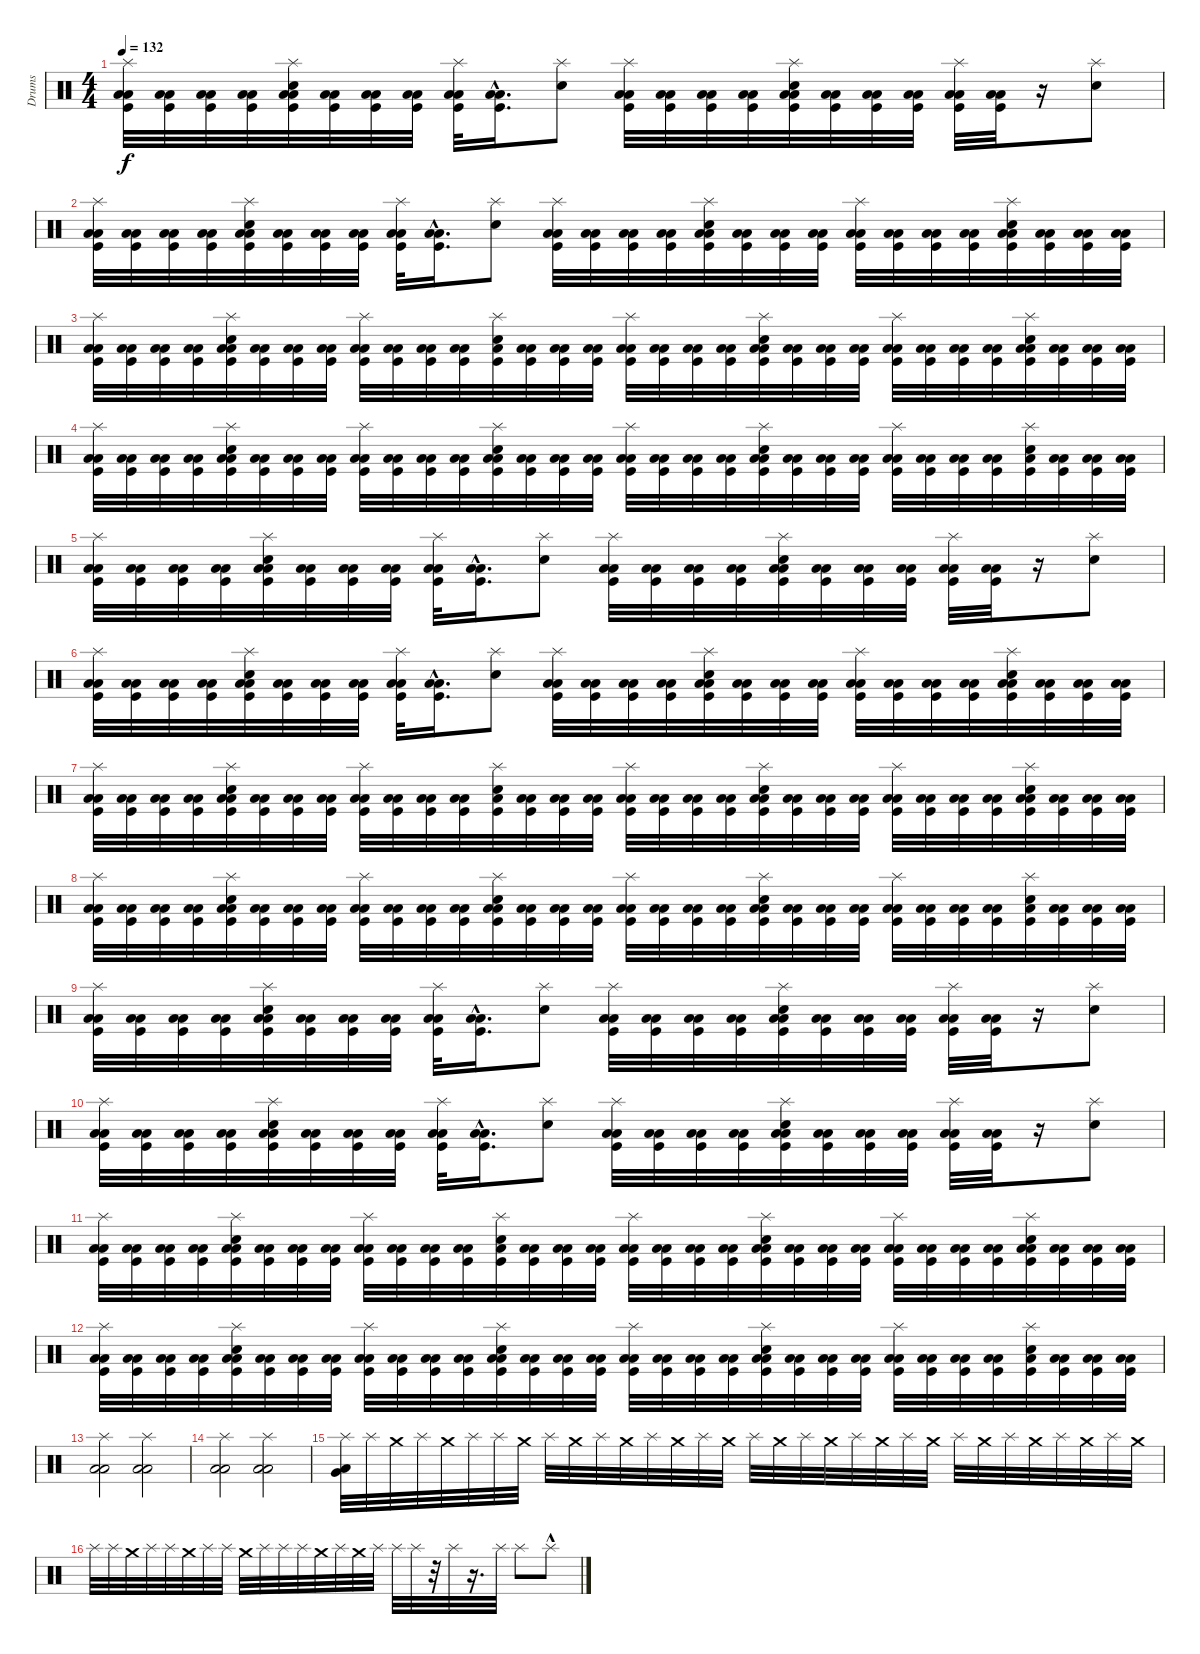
\track ("Drums" "Drums") {instrument percussion}
\staff {score}
\articulation defaults
\ts (4 4)
\tempo 132
\clef neutral
\ks c
("Splash (hit)" "Kick (hit)" "Low Floor Tom (hit)" "Low Tom (hit)").32{dy f} ("Kick (hit)" "Low Floor Tom (hit)" "Low Tom (hit)").32 ("Kick (hit)" "Low Floor Tom (hit)" "Low Tom (hit)").32 ("Kick (hit)" "Low Floor Tom (hit)" "Low Tom (hit)").32 ("Snare (hit) 2" "Splash (hit)" "Kick (hit)" "Low Floor Tom (hit)" "Low Tom (hit)").32 ("Kick (hit)" "Low Floor Tom (hit)" "Low Tom (hit)").32 ("Kick (hit)" "Low Floor Tom (hit)" "Low Tom (hit)").32 ("Kick (hit)" "Low Floor Tom (hit)" "Low Tom (hit)").32 ("Splash (hit)" "Low Floor Tom (hit)" "Kick (hit)" "Low Tom (hit)").32 ("Kick (hit)" "Low Floor Tom (hit)"{hac} "Low Tom (hit)").16{d} ("Electric Snare (hit)" "Splash (hit)").8 ("Splash (hit)" "Low Tom (hit)" "Low Floor Tom (hit)" "Kick (hit)").32 ("Kick (hit)" "Low Tom (hit)" "Low Floor Tom (hit)").32 ("Kick (hit)" "Low Tom (hit)" "Low Floor Tom (hit)").32 ("Kick (hit)" "Low Tom (hit)" "Low Floor Tom (hit)").32 ("Snare (hit) 2" "Splash (hit)" "Kick (hit)" "Low Tom (hit)" "Low Floor Tom (hit)").32 ("Kick (hit)" "Low Tom (hit)" "Low Floor Tom (hit)").32 ("Kick (hit)" "Low Tom (hit)" "Low Floor Tom (hit)").32 ("Kick (hit)" "Low Tom (hit)" "Low Floor Tom (hit)").32 ("Splash (hit)" "Kick (hit)" "Low Tom (hit)" "Low Floor Tom (hit)").32 ("Kick (hit)" "Low Tom (hit)" "Low Floor Tom (hit)").32 r.16 ("Electric Snare (hit)" "Splash (hit)").8 |
("Splash (hit)" "Kick (hit)" "Low Floor Tom (hit)" "Low Tom (hit)").32 ("Kick (hit)" "Low Floor Tom (hit)" "Low Tom (hit)").32 ("Kick (hit)" "Low Floor Tom (hit)" "Low Tom (hit)").32 ("Kick (hit)" "Low Floor Tom (hit)" "Low Tom (hit)").32 ("Snare (hit) 2" "Splash (hit)" "Kick (hit)" "Low Floor Tom (hit)" "Low Tom (hit)").32 ("Kick (hit)" "Low Floor Tom (hit)" "Low Tom (hit)").32 ("Kick (hit)" "Low Floor Tom (hit)" "Low Tom (hit)").32 ("Kick (hit)" "Low Floor Tom (hit)" "Low Tom (hit)").32 ("Splash (hit)" "Low Floor Tom (hit)" "Kick (hit)" "Low Tom (hit)").32 ("Kick (hit)" "Low Floor Tom (hit)"{hac} "Low Tom (hit)").16{d} ("Electric Snare (hit)" "Splash (hit)").8 ("Splash (hit)" "Low Tom (hit)" "Low Floor Tom (hit)" "Kick (hit)").32 ("Kick (hit)" "Low Tom (hit)" "Low Floor Tom (hit)").32 ("Kick (hit)" "Low Tom (hit)" "Low Floor Tom (hit)").32 ("Kick (hit)" "Low Tom (hit)" "Low Floor Tom (hit)").32 ("Snare (hit) 2" "Splash (hit)" "Kick (hit)" "Low Tom (hit)" "Low Floor Tom (hit)").32 ("Kick (hit)" "Low Tom (hit)" "Low Floor Tom (hit)").32 ("Kick (hit)" "Low Tom (hit)" "Low Floor Tom (hit)").32 ("Kick (hit)" "Low Tom (hit)" "Low Floor Tom (hit)").32 ("Splash (hit)" "Kick (hit)" "Low Tom (hit)" "Low Floor Tom (hit)").32 ("Kick (hit)" "Low Tom (hit)" "Low Floor Tom (hit)").32 ("Kick (hit)" "Low Floor Tom (hit)" "Low Tom (hit)").32 ("Kick (hit)" "Low Floor Tom (hit)" "Low Tom (hit)").32 ("Low Floor Tom (hit)" "Kick (hit)" "Low Tom (hit)" "Electric Snare (hit)" "Splash (hit)").32 ("Kick (hit)" "Low Floor Tom (hit)" "Low Tom (hit)").32 ("Kick (hit)" "Low Floor Tom (hit)" "Low Tom (hit)").32 ("Kick (hit)" "Low Floor Tom (hit)" "Low Tom (hit)").32 |
("Splash (hit)" "Kick (hit)" "Low Floor Tom (hit)" "Low Tom (hit)").32 ("Kick (hit)" "Low Floor Tom (hit)" "Low Tom (hit)").32 ("Kick (hit)" "Low Floor Tom (hit)" "Low Tom (hit)").32 ("Kick (hit)" "Low Floor Tom (hit)" "Low Tom (hit)").32 ("Snare (hit) 2" "Splash (hit)" "Kick (hit)" "Low Floor Tom (hit)" "Low Tom (hit)").32 ("Kick (hit)" "Low Floor Tom (hit)" "Low Tom (hit)").32 ("Kick (hit)" "Low Floor Tom (hit)" "Low Tom (hit)").32 ("Kick (hit)" "Low Floor Tom (hit)" "Low Tom (hit)").32 ("Splash (hit)" "Low Floor Tom (hit)" "Kick (hit)" "Low Tom (hit)").32 ("Kick (hit)" "Low Floor Tom (hit)" "Low Tom (hit)").32 ("Kick (hit)" "Low Floor Tom (hit)" "Low Tom (hit)").32 ("Low Floor Tom (hit)" "Low Tom (hit)" "Kick (hit)").32 ("Low Tom (hit)" "Kick (hit)" "Electric Snare (hit)" "Splash (hit)").32 ("Low Floor Tom (hit)" "Low Tom (hit)" "Kick (hit)").32 ("Low Floor Tom (hit)" "Low Tom (hit)" "Kick (hit)").32 ("Low Tom (hit)" "Low Floor Tom (hit)" "Kick (hit)").32 ("Splash (hit)" "Low Tom (hit)" "Low Floor Tom (hit)" "Kick (hit)").32 ("Kick (hit)" "Low Tom (hit)" "Low Floor Tom (hit)").32 ("Kick (hit)" "Low Tom (hit)" "Low Floor Tom (hit)").32 ("Kick (hit)" "Low Tom (hit)" "Low Floor Tom (hit)").32 ("Snare (hit) 2" "Splash (hit)" "Kick (hit)" "Low Tom (hit)" "Low Floor Tom (hit)").32 ("Kick (hit)" "Low Tom (hit)" "Low Floor Tom (hit)").32 ("Kick (hit)" "Low Tom (hit)" "Low Floor Tom (hit)").32 ("Kick (hit)" "Low Tom (hit)" "Low Floor Tom (hit)").32 ("Splash (hit)" "Kick (hit)" "Low Tom (hit)" "Low Floor Tom (hit)").32 ("Kick (hit)" "Low Tom (hit)" "Low Floor Tom (hit)").32 ("Kick (hit)" "Low Floor Tom (hit)" "Low Tom (hit)").32 ("Kick (hit)" "Low Floor Tom (hit)" "Low Tom (hit)").32 ("Kick (hit)" "Splash (hit)" "Low Floor Tom (hit)" "Low Tom (hit)" "Electric Snare (hit)").32 ("Kick (hit)" "Low Floor Tom (hit)" "Low Tom (hit)").32 ("Kick (hit)" "Low Floor Tom (hit)" "Low Tom (hit)").32 ("Kick (hit)" "Low Floor Tom (hit)" "Low Tom (hit)").32 |
("Splash (hit)" "Kick (hit)" "Low Floor Tom (hit)" "Low Tom (hit)").32 ("Kick (hit)" "Low Floor Tom (hit)" "Low Tom (hit)").32 ("Kick (hit)" "Low Floor Tom (hit)" "Low Tom (hit)").32 ("Kick (hit)" "Low Floor Tom (hit)" "Low Tom (hit)").32 ("Snare (hit) 2" "Splash (hit)" "Kick (hit)" "Low Floor Tom (hit)" "Low Tom (hit)").32 ("Kick (hit)" "Low Floor Tom (hit)" "Low Tom (hit)").32 ("Kick (hit)" "Low Floor Tom (hit)" "Low Tom (hit)").32 ("Kick (hit)" "Low Floor Tom (hit)" "Low Tom (hit)").32 ("Splash (hit)" "Low Floor Tom (hit)" "Kick (hit)" "Low Tom (hit)").32 ("Kick (hit)" "Low Floor Tom (hit)" "Low Tom (hit)").32 ("Kick (hit)" "Low Floor Tom (hit)" "Low Tom (hit)").32 ("Kick (hit)" "Low Floor Tom (hit)" "Low Tom (hit)").32 ("Low Tom (hit)" "Low Floor Tom (hit)" "Kick (hit)" "Electric Snare (hit)" "Splash (hit)").32 ("Low Tom (hit)" "Low Floor Tom (hit)" "Kick (hit)").32 ("Low Tom (hit)" "Low Floor Tom (hit)" "Kick (hit)").32 ("Low Tom (hit)" "Low Floor Tom (hit)" "Kick (hit)").32 ("Splash (hit)" "Low Tom (hit)" "Low Floor Tom (hit)" "Kick (hit)").32 ("Kick (hit)" "Low Tom (hit)" "Low Floor Tom (hit)").32 ("Kick (hit)" "Low Tom (hit)" "Low Floor Tom (hit)").32 ("Kick (hit)" "Low Tom (hit)" "Low Floor Tom (hit)").32 ("Snare (hit) 2" "Splash (hit)" "Kick (hit)" "Low Tom (hit)" "Low Floor Tom (hit)").32 ("Kick (hit)" "Low Tom (hit)" "Low Floor Tom (hit)").32 ("Kick (hit)" "Low Tom (hit)" "Low Floor Tom (hit)").32 ("Kick (hit)" "Low Tom (hit)" "Low Floor Tom (hit)").32 ("Splash (hit)" "Kick (hit)" "Low Tom (hit)" "Low Floor Tom (hit)").32 ("Kick (hit)" "Low Tom (hit)" "Low Floor Tom (hit)").32 ("Kick (hit)" "Low Floor Tom (hit)" "Low Tom (hit)").32 ("Kick (hit)" "Low Floor Tom (hit)" "Low Tom (hit)").32 ("Kick (hit)" "Low Tom (hit)" "Electric Snare (hit)" "Splash (hit)").32 ("Kick (hit)" "Low Floor Tom (hit)" "Low Tom (hit)").32 ("Kick (hit)" "Low Floor Tom (hit)" "Low Tom (hit)").32 ("Kick (hit)" "Low Floor Tom (hit)" "Low Tom (hit)").32 |
("Splash (hit)" "Kick (hit)" "Low Floor Tom (hit)" "Low Tom (hit)").32 ("Kick (hit)" "Low Floor Tom (hit)" "Low Tom (hit)").32 ("Kick (hit)" "Low Floor Tom (hit)" "Low Tom (hit)").32 ("Kick (hit)" "Low Floor Tom (hit)" "Low Tom (hit)").32 ("Snare (hit) 2" "Splash (hit)" "Kick (hit)" "Low Floor Tom (hit)" "Low Tom (hit)").32 ("Kick (hit)" "Low Floor Tom (hit)" "Low Tom (hit)").32 ("Kick (hit)" "Low Floor Tom (hit)" "Low Tom (hit)").32 ("Kick (hit)" "Low Floor Tom (hit)" "Low Tom (hit)").32 ("Splash (hit)" "Low Floor Tom (hit)" "Kick (hit)" "Low Tom (hit)").32 ("Kick (hit)" "Low Floor Tom (hit)"{hac} "Low Tom (hit)").16{d} ("Electric Snare (hit)" "Splash (hit)").8 ("Splash (hit)" "Low Tom (hit)" "Low Floor Tom (hit)" "Kick (hit)").32 ("Kick (hit)" "Low Tom (hit)" "Low Floor Tom (hit)").32 ("Kick (hit)" "Low Tom (hit)" "Low Floor Tom (hit)").32 ("Kick (hit)" "Low Tom (hit)" "Low Floor Tom (hit)").32 ("Snare (hit) 2" "Splash (hit)" "Kick (hit)" "Low Tom (hit)" "Low Floor Tom (hit)").32 ("Kick (hit)" "Low Tom (hit)" "Low Floor Tom (hit)").32 ("Kick (hit)" "Low Tom (hit)" "Low Floor Tom (hit)").32 ("Kick (hit)" "Low Tom (hit)" "Low Floor Tom (hit)").32 ("Splash (hit)" "Kick (hit)" "Low Tom (hit)" "Low Floor Tom (hit)").32 ("Kick (hit)" "Low Tom (hit)" "Low Floor Tom (hit)").32 r.16 ("Electric Snare (hit)" "Splash (hit)").8 |
("Splash (hit)" "Kick (hit)" "Low Floor Tom (hit)" "Low Tom (hit)").32 ("Kick (hit)" "Low Floor Tom (hit)" "Low Tom (hit)").32 ("Kick (hit)" "Low Floor Tom (hit)" "Low Tom (hit)").32 ("Kick (hit)" "Low Floor Tom (hit)" "Low Tom (hit)").32 ("Snare (hit) 2" "Splash (hit)" "Kick (hit)" "Low Floor Tom (hit)" "Low Tom (hit)").32 ("Kick (hit)" "Low Floor Tom (hit)" "Low Tom (hit)").32 ("Kick (hit)" "Low Floor Tom (hit)" "Low Tom (hit)").32 ("Kick (hit)" "Low Floor Tom (hit)" "Low Tom (hit)").32 ("Splash (hit)" "Low Floor Tom (hit)" "Kick (hit)" "Low Tom (hit)").32 ("Kick (hit)" "Low Floor Tom (hit)"{hac} "Low Tom (hit)").16{d} ("Electric Snare (hit)" "Splash (hit)").8 ("Splash (hit)" "Low Tom (hit)" "Low Floor Tom (hit)" "Kick (hit)").32 ("Kick (hit)" "Low Tom (hit)" "Low Floor Tom (hit)").32 ("Kick (hit)" "Low Tom (hit)" "Low Floor Tom (hit)").32 ("Kick (hit)" "Low Tom (hit)" "Low Floor Tom (hit)").32 ("Snare (hit) 2" "Splash (hit)" "Kick (hit)" "Low Tom (hit)" "Low Floor Tom (hit)").32 ("Kick (hit)" "Low Tom (hit)" "Low Floor Tom (hit)").32 ("Kick (hit)" "Low Tom (hit)" "Low Floor Tom (hit)").32 ("Kick (hit)" "Low Tom (hit)" "Low Floor Tom (hit)").32 ("Splash (hit)" "Kick (hit)" "Low Tom (hit)" "Low Floor Tom (hit)").32 ("Kick (hit)" "Low Tom (hit)" "Low Floor Tom (hit)").32 ("Kick (hit)" "Low Floor Tom (hit)" "Low Tom (hit)").32 ("Kick (hit)" "Low Floor Tom (hit)" "Low Tom (hit)").32 ("Low Floor Tom (hit)" "Kick (hit)" "Low Tom (hit)" "Electric Snare (hit)" "Splash (hit)").32 ("Kick (hit)" "Low Floor Tom (hit)" "Low Tom (hit)").32 ("Kick (hit)" "Low Floor Tom (hit)" "Low Tom (hit)").32 ("Kick (hit)" "Low Floor Tom (hit)" "Low Tom (hit)").32 |
("Splash (hit)" "Kick (hit)" "Low Floor Tom (hit)" "Low Tom (hit)").32 ("Kick (hit)" "Low Floor Tom (hit)" "Low Tom (hit)").32 ("Kick (hit)" "Low Floor Tom (hit)" "Low Tom (hit)").32 ("Kick (hit)" "Low Floor Tom (hit)" "Low Tom (hit)").32 ("Snare (hit) 2" "Splash (hit)" "Kick (hit)" "Low Floor Tom (hit)" "Low Tom (hit)").32 ("Kick (hit)" "Low Floor Tom (hit)" "Low Tom (hit)").32 ("Kick (hit)" "Low Floor Tom (hit)" "Low Tom (hit)").32 ("Kick (hit)" "Low Floor Tom (hit)" "Low Tom (hit)").32 ("Splash (hit)" "Low Floor Tom (hit)" "Kick (hit)" "Low Tom (hit)").32 ("Kick (hit)" "Low Floor Tom (hit)" "Low Tom (hit)").32 ("Kick (hit)" "Low Floor Tom (hit)" "Low Tom (hit)").32 ("Low Floor Tom (hit)" "Low Tom (hit)" "Kick (hit)").32 ("Low Tom (hit)" "Kick (hit)" "Electric Snare (hit)" "Splash (hit)").32 ("Low Floor Tom (hit)" "Low Tom (hit)" "Kick (hit)").32 ("Low Floor Tom (hit)" "Low Tom (hit)" "Kick (hit)").32 ("Low Tom (hit)" "Low Floor Tom (hit)" "Kick (hit)").32 ("Splash (hit)" "Low Tom (hit)" "Low Floor Tom (hit)" "Kick (hit)").32 ("Kick (hit)" "Low Tom (hit)" "Low Floor Tom (hit)").32 ("Kick (hit)" "Low Tom (hit)" "Low Floor Tom (hit)").32 ("Kick (hit)" "Low Tom (hit)" "Low Floor Tom (hit)").32 ("Snare (hit) 2" "Splash (hit)" "Kick (hit)" "Low Tom (hit)" "Low Floor Tom (hit)").32 ("Kick (hit)" "Low Tom (hit)" "Low Floor Tom (hit)").32 ("Kick (hit)" "Low Tom (hit)" "Low Floor Tom (hit)").32 ("Kick (hit)" "Low Tom (hit)" "Low Floor Tom (hit)").32 ("Splash (hit)" "Kick (hit)" "Low Tom (hit)" "Low Floor Tom (hit)").32 ("Kick (hit)" "Low Tom (hit)" "Low Floor Tom (hit)").32 ("Kick (hit)" "Low Floor Tom (hit)" "Low Tom (hit)").32 ("Kick (hit)" "Low Floor Tom (hit)" "Low Tom (hit)").32 ("Kick (hit)" "Splash (hit)" "Low Floor Tom (hit)" "Low Tom (hit)" "Electric Snare (hit)").32 ("Kick (hit)" "Low Floor Tom (hit)" "Low Tom (hit)").32 ("Kick (hit)" "Low Floor Tom (hit)" "Low Tom (hit)").32 ("Kick (hit)" "Low Floor Tom (hit)" "Low Tom (hit)").32 |
("Splash (hit)" "Kick (hit)" "Low Floor Tom (hit)" "Low Tom (hit)").32 ("Kick (hit)" "Low Floor Tom (hit)" "Low Tom (hit)").32 ("Kick (hit)" "Low Floor Tom (hit)" "Low Tom (hit)").32 ("Kick (hit)" "Low Floor Tom (hit)" "Low Tom (hit)").32 ("Snare (hit) 2" "Splash (hit)" "Kick (hit)" "Low Floor Tom (hit)" "Low Tom (hit)").32 ("Kick (hit)" "Low Floor Tom (hit)" "Low Tom (hit)").32 ("Kick (hit)" "Low Floor Tom (hit)" "Low Tom (hit)").32 ("Kick (hit)" "Low Floor Tom (hit)" "Low Tom (hit)").32 ("Splash (hit)" "Low Floor Tom (hit)" "Kick (hit)" "Low Tom (hit)").32 ("Kick (hit)" "Low Floor Tom (hit)" "Low Tom (hit)").32 ("Kick (hit)" "Low Floor Tom (hit)" "Low Tom (hit)").32 ("Kick (hit)" "Low Floor Tom (hit)" "Low Tom (hit)").32 ("Low Tom (hit)" "Low Floor Tom (hit)" "Kick (hit)" "Electric Snare (hit)" "Splash (hit)").32 ("Low Tom (hit)" "Low Floor Tom (hit)" "Kick (hit)").32 ("Low Tom (hit)" "Low Floor Tom (hit)" "Kick (hit)").32 ("Low Tom (hit)" "Low Floor Tom (hit)" "Kick (hit)").32 ("Splash (hit)" "Low Tom (hit)" "Low Floor Tom (hit)" "Kick (hit)").32 ("Kick (hit)" "Low Tom (hit)" "Low Floor Tom (hit)").32 ("Kick (hit)" "Low Tom (hit)" "Low Floor Tom (hit)").32 ("Kick (hit)" "Low Tom (hit)" "Low Floor Tom (hit)").32 ("Snare (hit) 2" "Splash (hit)" "Kick (hit)" "Low Tom (hit)" "Low Floor Tom (hit)").32 ("Kick (hit)" "Low Tom (hit)" "Low Floor Tom (hit)").32 ("Kick (hit)" "Low Tom (hit)" "Low Floor Tom (hit)").32 ("Kick (hit)" "Low Tom (hit)" "Low Floor Tom (hit)").32 ("Splash (hit)" "Kick (hit)" "Low Tom (hit)" "Low Floor Tom (hit)").32 ("Kick (hit)" "Low Tom (hit)" "Low Floor Tom (hit)").32 ("Kick (hit)" "Low Floor Tom (hit)" "Low Tom (hit)").32 ("Kick (hit)" "Low Floor Tom (hit)" "Low Tom (hit)").32 ("Kick (hit)" "Low Tom (hit)" "Electric Snare (hit)" "Splash (hit)").32 ("Kick (hit)" "Low Floor Tom (hit)" "Low Tom (hit)").32 ("Kick (hit)" "Low Floor Tom (hit)" "Low Tom (hit)").32 ("Kick (hit)" "Low Floor Tom (hit)" "Low Tom (hit)").32 |
("Splash (hit)" "Kick (hit)" "Low Floor Tom (hit)" "Low Tom (hit)").32 ("Kick (hit)" "Low Floor Tom (hit)" "Low Tom (hit)").32 ("Kick (hit)" "Low Floor Tom (hit)" "Low Tom (hit)").32 ("Kick (hit)" "Low Floor Tom (hit)" "Low Tom (hit)").32 ("Snare (hit) 2" "Splash (hit)" "Kick (hit)" "Low Floor Tom (hit)" "Low Tom (hit)").32 ("Kick (hit)" "Low Floor Tom (hit)" "Low Tom (hit)").32 ("Kick (hit)" "Low Floor Tom (hit)" "Low Tom (hit)").32 ("Kick (hit)" "Low Floor Tom (hit)" "Low Tom (hit)").32 ("Splash (hit)" "Low Floor Tom (hit)" "Kick (hit)" "Low Tom (hit)").32 ("Kick (hit)" "Low Floor Tom (hit)"{hac} "Low Tom (hit)").16{d} ("Electric Snare (hit)" "Splash (hit)").8 ("Splash (hit)" "Low Tom (hit)" "Low Floor Tom (hit)" "Kick (hit)").32 ("Kick (hit)" "Low Tom (hit)" "Low Floor Tom (hit)").32 ("Kick (hit)" "Low Tom (hit)" "Low Floor Tom (hit)").32 ("Kick (hit)" "Low Tom (hit)" "Low Floor Tom (hit)").32 ("Snare (hit) 2" "Splash (hit)" "Kick (hit)" "Low Tom (hit)" "Low Floor Tom (hit)").32 ("Kick (hit)" "Low Tom (hit)" "Low Floor Tom (hit)").32 ("Kick (hit)" "Low Tom (hit)" "Low Floor Tom (hit)").32 ("Kick (hit)" "Low Tom (hit)" "Low Floor Tom (hit)").32 ("Splash (hit)" "Kick (hit)" "Low Tom (hit)" "Low Floor Tom (hit)").32 ("Kick (hit)" "Low Tom (hit)" "Low Floor Tom (hit)").32 r.16 ("Electric Snare (hit)" "Splash (hit)").8 |
("Splash (hit)" "Kick (hit)" "Low Floor Tom (hit)" "Low Tom (hit)").32 ("Kick (hit)" "Low Floor Tom (hit)" "Low Tom (hit)").32 ("Kick (hit)" "Low Floor Tom (hit)" "Low Tom (hit)").32 ("Kick (hit)" "Low Floor Tom (hit)" "Low Tom (hit)").32 ("Snare (hit) 2" "Splash (hit)" "Kick (hit)" "Low Floor Tom (hit)" "Low Tom (hit)").32 ("Kick (hit)" "Low Floor Tom (hit)" "Low Tom (hit)").32 ("Kick (hit)" "Low Floor Tom (hit)" "Low Tom (hit)").32 ("Kick (hit)" "Low Floor Tom (hit)" "Low Tom (hit)").32 ("Splash (hit)" "Low Floor Tom (hit)" "Kick (hit)" "Low Tom (hit)").32 ("Kick (hit)" "Low Floor Tom (hit)"{hac} "Low Tom (hit)").16{d} ("Electric Snare (hit)" "Splash (hit)").8 ("Splash (hit)" "Low Tom (hit)" "Low Floor Tom (hit)" "Kick (hit)").32 ("Kick (hit)" "Low Tom (hit)" "Low Floor Tom (hit)").32 ("Kick (hit)" "Low Tom (hit)" "Low Floor Tom (hit)").32 ("Kick (hit)" "Low Tom (hit)" "Low Floor Tom (hit)").32 ("Snare (hit) 2" "Splash (hit)" "Kick (hit)" "Low Tom (hit)" "Low Floor Tom (hit)").32 ("Kick (hit)" "Low Tom (hit)" "Low Floor Tom (hit)").32 ("Kick (hit)" "Low Tom (hit)" "Low Floor Tom (hit)").32 ("Kick (hit)" "Low Tom (hit)" "Low Floor Tom (hit)").32 ("Splash (hit)" "Kick (hit)" "Low Tom (hit)" "Low Floor Tom (hit)").32 ("Kick (hit)" "Low Tom (hit)" "Low Floor Tom (hit)").32 r.16 ("Electric Snare (hit)" "Splash (hit)").8 |
("Splash (hit)" "Kick (hit)" "Low Floor Tom (hit)" "Low Tom (hit)").32 ("Kick (hit)" "Low Floor Tom (hit)" "Low Tom (hit)").32 ("Kick (hit)" "Low Floor Tom (hit)" "Low Tom (hit)").32 ("Kick (hit)" "Low Floor Tom (hit)" "Low Tom (hit)").32 ("Snare (hit) 2" "Splash (hit)" "Kick (hit)" "Low Floor Tom (hit)" "Low Tom (hit)").32 ("Kick (hit)" "Low Floor Tom (hit)" "Low Tom (hit)").32 ("Kick (hit)" "Low Floor Tom (hit)" "Low Tom (hit)").32 ("Kick (hit)" "Low Floor Tom (hit)" "Low Tom (hit)").32 ("Splash (hit)" "Low Floor Tom (hit)" "Kick (hit)" "Low Tom (hit)").32 ("Kick (hit)" "Low Floor Tom (hit)" "Low Tom (hit)").32 ("Kick (hit)" "Low Floor Tom (hit)" "Low Tom (hit)").32 ("Low Floor Tom (hit)" "Low Tom (hit)" "Kick (hit)").32 ("Low Tom (hit)" "Kick (hit)" "Electric Snare (hit)" "Splash (hit)").32 ("Low Floor Tom (hit)" "Low Tom (hit)" "Kick (hit)").32 ("Low Floor Tom (hit)" "Low Tom (hit)" "Kick (hit)").32 ("Low Tom (hit)" "Low Floor Tom (hit)" "Kick (hit)").32 ("Splash (hit)" "Low Tom (hit)" "Low Floor Tom (hit)" "Kick (hit)").32 ("Kick (hit)" "Low Tom (hit)" "Low Floor Tom (hit)").32 ("Kick (hit)" "Low Tom (hit)" "Low Floor Tom (hit)").32 ("Kick (hit)" "Low Tom (hit)" "Low Floor Tom (hit)").32 ("Snare (hit) 2" "Splash (hit)" "Kick (hit)" "Low Tom (hit)" "Low Floor Tom (hit)").32 ("Kick (hit)" "Low Tom (hit)" "Low Floor Tom (hit)").32 ("Kick (hit)" "Low Tom (hit)" "Low Floor Tom (hit)").32 ("Kick (hit)" "Low Tom (hit)" "Low Floor Tom (hit)").32 ("Splash (hit)" "Kick (hit)" "Low Tom (hit)" "Low Floor Tom (hit)").32 ("Kick (hit)" "Low Tom (hit)" "Low Floor Tom (hit)").32 ("Kick (hit)" "Low Floor Tom (hit)" "Low Tom (hit)").32 ("Kick (hit)" "Low Floor Tom (hit)" "Low Tom (hit)").32 ("Kick (hit)" "Splash (hit)" "Low Floor Tom (hit)" "Low Tom (hit)" "Electric Snare (hit)").32 ("Kick (hit)" "Low Floor Tom (hit)" "Low Tom (hit)").32 ("Kick (hit)" "Low Floor Tom (hit)" "Low Tom (hit)").32 ("Kick (hit)" "Low Floor Tom (hit)" "Low Tom (hit)").32 |
("Splash (hit)" "Kick (hit)" "Low Floor Tom (hit)" "Low Tom (hit)").32 ("Kick (hit)" "Low Floor Tom (hit)" "Low Tom (hit)").32 ("Kick (hit)" "Low Floor Tom (hit)" "Low Tom (hit)").32 ("Kick (hit)" "Low Floor Tom (hit)" "Low Tom (hit)").32 ("Snare (hit) 2" "Splash (hit)" "Kick (hit)" "Low Floor Tom (hit)" "Low Tom (hit)").32 ("Kick (hit)" "Low Floor Tom (hit)" "Low Tom (hit)").32 ("Kick (hit)" "Low Floor Tom (hit)" "Low Tom (hit)").32 ("Kick (hit)" "Low Floor Tom (hit)" "Low Tom (hit)").32 ("Splash (hit)" "Low Floor Tom (hit)" "Kick (hit)" "Low Tom (hit)").32 ("Kick (hit)" "Low Floor Tom (hit)" "Low Tom (hit)").32 ("Kick (hit)" "Low Floor Tom (hit)" "Low Tom (hit)").32 ("Kick (hit)" "Low Floor Tom (hit)" "Low Tom (hit)").32 ("Low Tom (hit)" "Low Floor Tom (hit)" "Kick (hit)" "Electric Snare (hit)" "Splash (hit)").32 ("Low Tom (hit)" "Low Floor Tom (hit)" "Kick (hit)").32 ("Low Tom (hit)" "Low Floor Tom (hit)" "Kick (hit)").32 ("Low Tom (hit)" "Low Floor Tom (hit)" "Kick (hit)").32 ("Splash (hit)" "Low Tom (hit)" "Low Floor Tom (hit)" "Kick (hit)").32 ("Kick (hit)" "Low Tom (hit)" "Low Floor Tom (hit)").32 ("Kick (hit)" "Low Tom (hit)" "Low Floor Tom (hit)").32 ("Kick (hit)" "Low Tom (hit)" "Low Floor Tom (hit)").32 ("Snare (hit) 2" "Splash (hit)" "Kick (hit)" "Low Tom (hit)" "Low Floor Tom (hit)").32 ("Kick (hit)" "Low Tom (hit)" "Low Floor Tom (hit)").32 ("Kick (hit)" "Low Tom (hit)" "Low Floor Tom (hit)").32 ("Kick (hit)" "Low Tom (hit)" "Low Floor Tom (hit)").32 ("Splash (hit)" "Kick (hit)" "Low Tom (hit)" "Low Floor Tom (hit)").32 ("Kick (hit)" "Low Tom (hit)" "Low Floor Tom (hit)").32 ("Kick (hit)" "Low Floor Tom (hit)" "Low Tom (hit)").32 ("Kick (hit)" "Low Floor Tom (hit)" "Low Tom (hit)").32 ("Kick (hit)" "Low Tom (hit)" "Electric Snare (hit)" "Splash (hit)").32 ("Kick (hit)" "Low Floor Tom (hit)" "Low Tom (hit)").32 ("Kick (hit)" "Low Floor Tom (hit)" "Low Tom (hit)").32 ("Kick (hit)" "Low Floor Tom (hit)" "Low Tom (hit)").32 |
("Low Tom (hit)" "Low Floor Tom (hit)" "Splash (hit)").2 ("Low Floor Tom (hit)" "Low Tom (hit)" "Splash (hit)").2 |
("Low Floor Tom (hit)" "Low Tom (hit)" "Splash (hit)").2 ("Low Floor Tom (hit)" "Low Tom (hit)" "Splash (hit)").2 |
("Low Floor Tom (hit)" "Very Low Tom (hit)" "Splash (hit)").32 "Splash (hit)".32 "Crash medium (hit)".32 "Splash (hit)".32 "Crash medium (hit)".32 "Splash (hit)".32 "Splash (hit)".32 "Crash medium (hit)".32 "Splash (hit)".32 "Crash medium (hit)".32 "Splash (hit)".32 "Crash medium (hit)".32 "Splash (hit)".32 "Crash medium (hit)".32 "Splash (hit)".32 "Crash medium (hit)".32 "Splash (hit)".32 "Crash medium (hit)".32 "Splash (hit)".32 "Crash medium (hit)".32 "Splash (hit)".32 "Crash medium (hit)".32 "Splash (hit)".32 "Crash medium (hit)".32 "Splash (hit)".32 "Crash medium (hit)".32 "Splash (hit)".32 "Crash medium (hit)".32 "Splash (hit)".32 "Crash medium (hit)".32 "Splash (hit)".32 "Crash medium (hit)".32 |
"Splash (hit)".32 "Splash (hit)".32 "Crash medium (hit)".32 "Splash (hit)".32 "Splash (hit)".32 "Crash medium (hit)".32 "Splash (hit)".32 "Splash (hit)".32 "Crash medium (hit)".32 "Splash (hit)".32 "Splash (hit)".32 "Splash (hit)".32 "Crash medium (hit)".32 "Splash (hit)".32 "Crash medium (hit)".32 "Splash (hit)".32 "Splash (hit)".32 "Splash (hit)".32 r.32 "Splash (hit)".32 r.16{d} "Splash (hit)".32 "Splash (hit)".8 "Splash (hit)"{hac}.8
